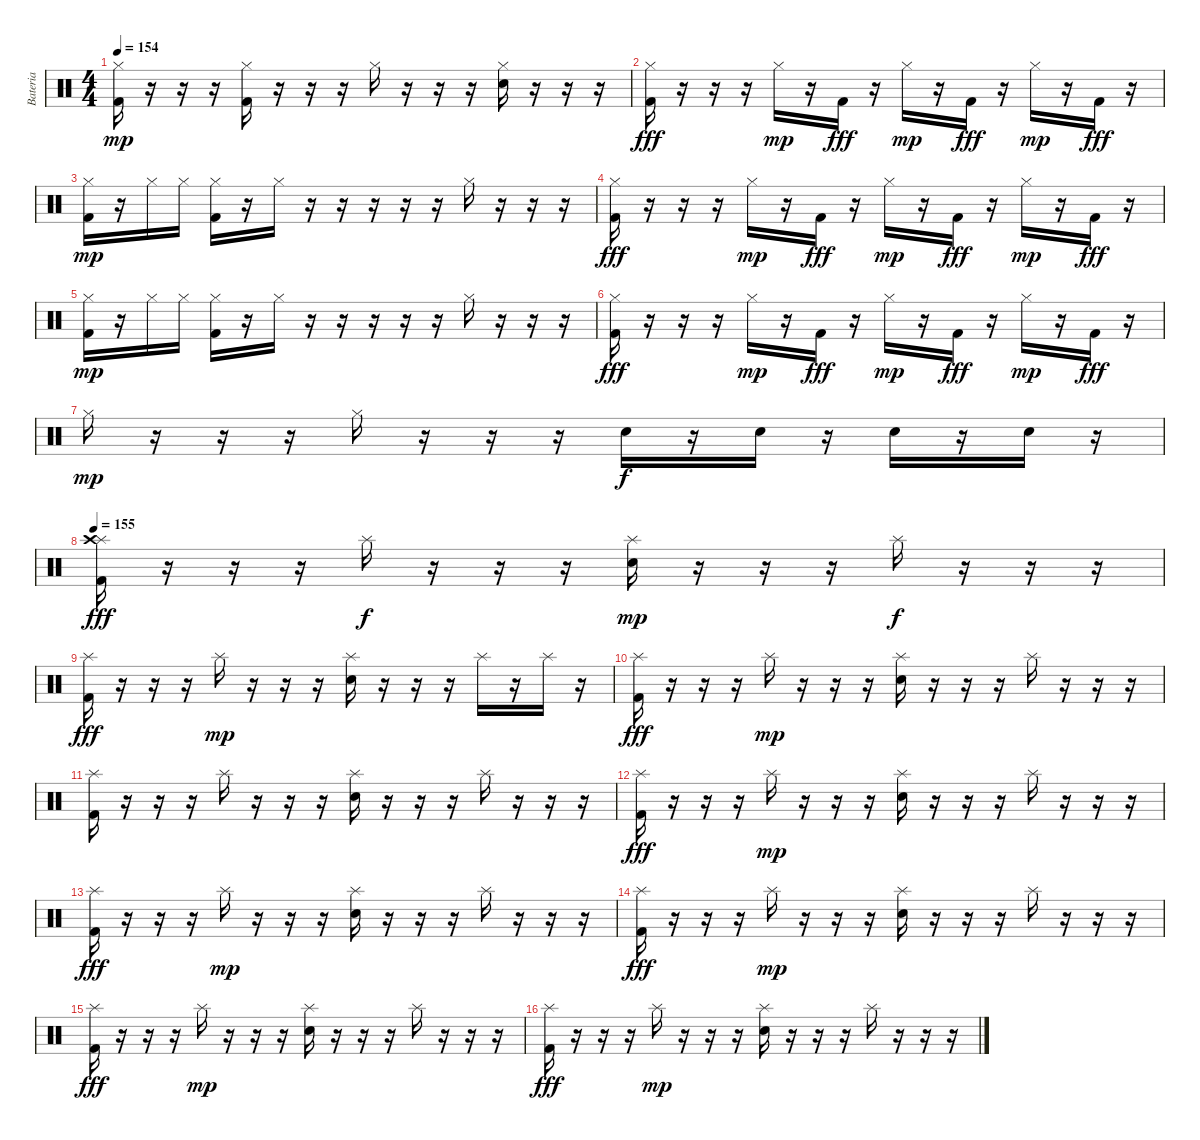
\track ("Bateria" "Bateria") {instrument percussion}
\staff {score}
\articulation defaults
\ts (4 4)
\tempo 154
\clef neutral
\ks c
("Hi-Hat (closed)" "Kick (hit) 2").16{dy mp} r.16 r.16 r.16 ("Hi-Hat (closed)" "Kick (hit) 2").16 r.16 r.16 r.16 "Hi-Hat (closed)".16 r.16 r.16 r.16 ("Hi-Hat (closed)" "Electric Snare (hit)").16 r.16 r.16 r.16 |
("Hi-Hat (closed)" "Kick (hit) 2").16{dy fff} r.16 r.16 r.16 "Hi-Hat (closed)".16{dy mp} r.16 "Kick (hit) 2".16{dy fff} r.16 "Hi-Hat (closed)".16{dy mp} r.16 "Kick (hit) 2".16{dy fff} r.16 "Hi-Hat (closed)".16{dy mp} r.16 "Kick (hit) 2".16{dy fff} r.16 |
("Hi-Hat (closed)" "Kick (hit) 2").16{dy mp} r.16 "Hi-Hat (closed)".16 "Hi-Hat (closed)".16 ("Hi-Hat (closed)" "Kick (hit) 2").16 r.16 "Hi-Hat (closed)".16 r.16 r.16 r.16 r.16 r.16 "Hi-Hat (closed)".16 r.16 r.16 r.16 |
("Hi-Hat (closed)" "Kick (hit) 2").16{dy fff} r.16 r.16 r.16 "Hi-Hat (closed)".16{dy mp} r.16 "Kick (hit) 2".16{dy fff} r.16 "Hi-Hat (closed)".16{dy mp} r.16 "Kick (hit) 2".16{dy fff} r.16 "Hi-Hat (closed)".16{dy mp} r.16 "Kick (hit) 2".16{dy fff} r.16 |
("Hi-Hat (closed)" "Kick (hit) 2").16{dy mp} r.16 "Hi-Hat (closed)".16 "Hi-Hat (closed)".16 ("Hi-Hat (closed)" "Kick (hit) 2").16 r.16 "Hi-Hat (closed)".16 r.16 r.16 r.16 r.16 r.16 "Hi-Hat (closed)".16 r.16 r.16 r.16 |
("Hi-Hat (closed)" "Kick (hit) 2").16{dy fff} r.16 r.16 r.16 "Hi-Hat (closed)".16{dy mp} r.16 "Kick (hit) 2".16{dy fff} r.16 "Hi-Hat (closed)".16{dy mp} r.16 "Kick (hit) 2".16{dy fff} r.16 "Hi-Hat (closed)".16{dy mp} r.16 "Kick (hit) 2".16{dy fff} r.16 |
"Hi-Hat (closed)".16{dy mp} r.16 r.16 r.16 "Hi-Hat (closed)".16 r.16 r.16 r.16 "Electric Snare (hit)".16{dy f} r.16 "Electric Snare (hit)".16 r.16 "Electric Snare (hit)".16 r.16 "Electric Snare (hit)".16 r.16 |
\tempo 155
("Splash (hit)" "Crash high (hit)" "Kick (hit) 2").16{dy fff} r.16 r.16 r.16 "Splash (hit)".16{dy f} r.16 r.16 r.16 ("Splash (hit)" "Electric Snare (hit)").16{dy mp} r.16 r.16 r.16 "Splash (hit)".16{dy f} r.16 r.16 r.16 |
("Splash (hit)" "Kick (hit) 2").16{dy fff} r.16 r.16 r.16 "Splash (hit)".16{dy mp} r.16 r.16 r.16 ("Splash (hit)" "Electric Snare (hit)").16 r.16 r.16 r.16 "Splash (hit)".16 r.16 "Splash (hit)".16 r.16 |
("Splash (hit)" "Kick (hit) 2").16{dy fff} r.16 r.16 r.16 "Splash (hit)".16{dy mp} r.16 r.16 r.16 ("Splash (hit)" "Electric Snare (hit)").16 r.16 r.16 r.16 "Splash (hit)".16 r.16 r.16 r.16 |
("Splash (hit)" "Kick (hit) 2").16 r.16 r.16 r.16 "Splash (hit)".16 r.16 r.16 r.16 ("Splash (hit)" "Electric Snare (hit)").16 r.16 r.16 r.16 "Splash (hit)".16 r.16 r.16 r.16 |
("Splash (hit)" "Kick (hit) 2").16{dy fff} r.16 r.16 r.16 "Splash (hit)".16{dy mp} r.16 r.16 r.16 ("Splash (hit)" "Electric Snare (hit)").16 r.16 r.16 r.16 "Splash (hit)".16 r.16 r.16 r.16 |
("Splash (hit)" "Kick (hit) 2").16{dy fff} r.16 r.16 r.16 "Splash (hit)".16{dy mp} r.16 r.16 r.16 ("Splash (hit)" "Electric Snare (hit)").16 r.16 r.16 r.16 "Splash (hit)".16 r.16 r.16 r.16 |
("Splash (hit)" "Kick (hit) 2").16{dy fff} r.16 r.16 r.16 "Splash (hit)".16{dy mp} r.16 r.16 r.16 ("Splash (hit)" "Electric Snare (hit)").16 r.16 r.16 r.16 "Splash (hit)".16 r.16 r.16 r.16 |
("Splash (hit)" "Kick (hit) 2").16{dy fff} r.16 r.16 r.16 "Splash (hit)".16{dy mp} r.16 r.16 r.16 ("Splash (hit)" "Electric Snare (hit)").16 r.16 r.16 r.16 "Splash (hit)".16 r.16 r.16 r.16 |
("Splash (hit)" "Kick (hit) 2").16{dy fff} r.16 r.16 r.16 "Splash (hit)".16{dy mp} r.16 r.16 r.16 ("Splash (hit)" "Electric Snare (hit)").16 r.16 r.16 r.16 "Splash (hit)".16 r.16 r.16 r.16
